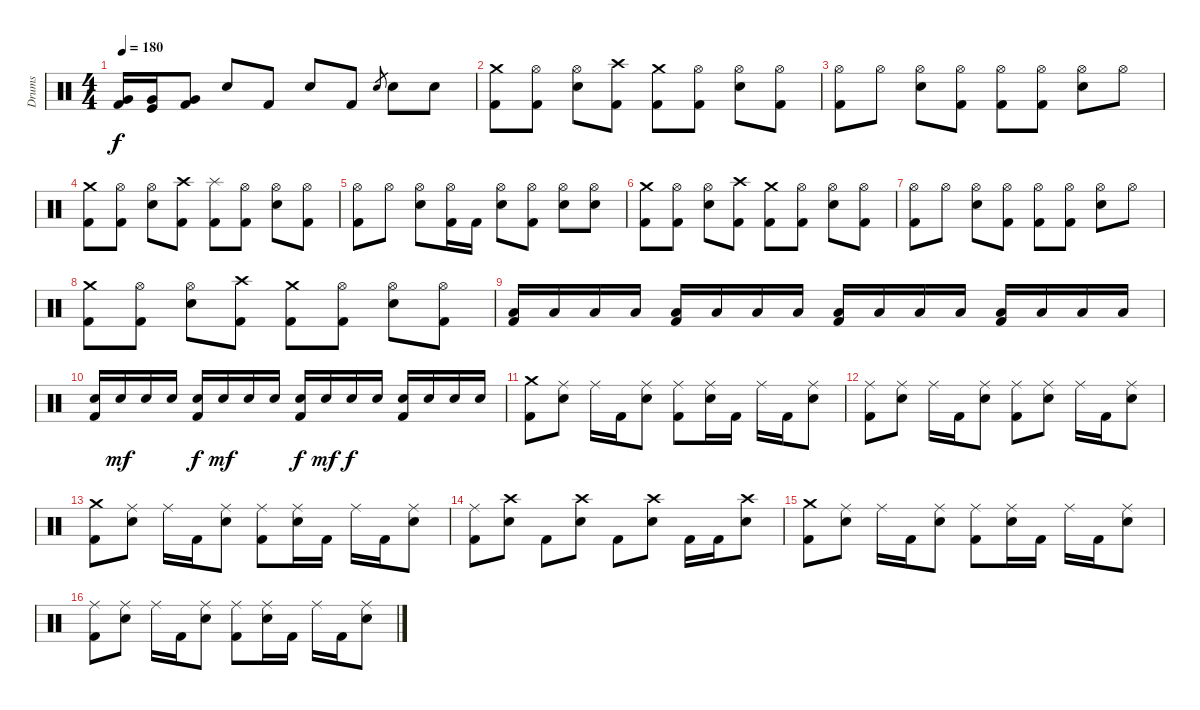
\track ("Drums" "Drums") {instrument percussion}
\staff {score}
\articulation defaults
\ts (4 4)
\tempo 180
\clef neutral
\ks c
("Very Low Tom (hit)" "Kick (hit) 2").16{dy f} ("Very Low Tom (hit)" "Kick (hit)").16 ("Very Low Tom (hit)" "Kick (hit) 2").8 "Electric Snare (hit)".8 "Kick (hit) 2".8 "Electric Snare (hit)".8 "Kick (hit) 2".8 "Electric Snare (hit)".8{gr} "Electric Snare (hit)".8 "Electric Snare (hit)".8 |
("Crash medium (hit)" "Kick (hit) 2").8 ("Hi-Hat (open)" "Kick (hit) 2").8 ("Hi-Hat (open)" "Electric Snare (hit)").8 ("Crash high (hit)" "Kick (hit) 2").8 ("Crash medium (hit)" "Kick (hit) 2").8 ("Hi-Hat (open)" "Kick (hit) 2").8 ("Hi-Hat (open)" "Electric Snare (hit)").8 ("Hi-Hat (open)" "Kick (hit) 2").8 |
("Hi-Hat (open)" "Kick (hit) 2").8 "Hi-Hat (open)".8 ("Hi-Hat (open)" "Electric Snare (hit)").8 ("Hi-Hat (open)" "Kick (hit) 2").8 ("Hi-Hat (open)" "Kick (hit) 2").8 ("Hi-Hat (open)" "Kick (hit) 2").8 ("Hi-Hat (open)" "Electric Snare (hit)").8 "Hi-Hat (open)".8 |
("Crash medium (hit)" "Kick (hit) 2").8 ("Hi-Hat (open)" "Kick (hit) 2").8 ("Hi-Hat (open)" "Electric Snare (hit)").8 ("Crash high (hit)" "Kick (hit) 2").8 ("Splash (hit)" "Kick (hit) 2").8 ("Hi-Hat (open)" "Kick (hit) 2").8 ("Hi-Hat (open)" "Electric Snare (hit)").8 ("Hi-Hat (open)" "Kick (hit) 2").8 |
("Hi-Hat (open)" "Kick (hit) 2").8 "Hi-Hat (open)".8 ("Hi-Hat (open)" "Electric Snare (hit)").8 ("Hi-Hat (open)" "Kick (hit) 2").16 "Kick (hit) 2".16 ("Hi-Hat (open)" "Electric Snare (hit)").8 ("Hi-Hat (open)" "Kick (hit) 2").8 ("Hi-Hat (open)" "Electric Snare (hit)").8 ("Hi-Hat (open)" "Electric Snare (hit)").8 |
("Crash medium (hit)" "Kick (hit) 2").8 ("Hi-Hat (open)" "Kick (hit) 2").8 ("Hi-Hat (open)" "Electric Snare (hit)").8 ("Crash high (hit)" "Kick (hit) 2").8 ("Crash medium (hit)" "Kick (hit) 2").8 ("Hi-Hat (open)" "Kick (hit) 2").8 ("Hi-Hat (open)" "Electric Snare (hit)").8 ("Hi-Hat (open)" "Kick (hit) 2").8 |
("Hi-Hat (open)" "Kick (hit) 2").8 "Hi-Hat (open)".8 ("Hi-Hat (open)" "Electric Snare (hit)").8 ("Hi-Hat (open)" "Kick (hit) 2").8 ("Hi-Hat (open)" "Kick (hit) 2").8 ("Hi-Hat (open)" "Kick (hit) 2").8 ("Hi-Hat (open)" "Electric Snare (hit)").8 "Hi-Hat (open)".8 |
("Crash medium (hit)" "Kick (hit) 2").8 ("Hi-Hat (open)" "Kick (hit) 2").8 ("Hi-Hat (open)" "Electric Snare (hit)").8 ("Crash high (hit)" "Kick (hit) 2").8 ("Crash medium (hit)" "Kick (hit) 2").8 ("Hi-Hat (open)" "Kick (hit) 2").8 ("Hi-Hat (open)" "Electric Snare (hit)").8 ("Hi-Hat (open)" "Kick (hit) 2").8 |
("Low Tom (hit)" "Kick (hit) 2").16 "Low Tom (hit)".16 "Low Tom (hit)".16 "Low Tom (hit)".16 ("Low Tom (hit)" "Kick (hit) 2").16 "Low Tom (hit)".16 "Low Tom (hit)".16 "Low Tom (hit)".16 ("Low Tom (hit)" "Kick (hit) 2").16 "Low Tom (hit)".16 "Low Tom (hit)".16 "Low Tom (hit)".16 ("Low Tom (hit)" "Kick (hit) 2").16 "Low Tom (hit)".16 "Low Tom (hit)".16 "Low Tom (hit)".16 |
("Electric Snare (hit)" "Kick (hit) 2").16 "Electric Snare (hit)".16{dy mf} "Electric Snare (hit)".16 "Electric Snare (hit)".16 ("Electric Snare (hit)" "Kick (hit) 2").16{dy f} "Electric Snare (hit)".16{dy mf} "Electric Snare (hit)".16 "Electric Snare (hit)".16 ("Electric Snare (hit)" "Kick (hit) 2").16{dy f} "Electric Snare (hit)".16{dy mf} "Electric Snare (hit)".16{dy f} "Electric Snare (hit)".16 ("Electric Snare (hit)" "Kick (hit) 2").16 "Electric Snare (hit)".16 "Electric Snare (hit)".16 "Electric Snare (hit)".16 |
("Crash medium (hit)" "Kick (hit) 2").8 ("Ride (middle)" "Electric Snare (hit)").8 "Ride (middle)".16 "Kick (hit) 2".16 ("Ride (middle)" "Electric Snare (hit)").8 ("Ride (middle)" "Kick (hit) 2").8 ("Ride (middle)" "Electric Snare (hit)").16 "Kick (hit) 2".16 "Ride (middle)".16 "Kick (hit) 2".16 ("Ride (middle)" "Electric Snare (hit)").8 |
("Ride (middle)" "Kick (hit) 2").8 ("Ride (middle)" "Electric Snare (hit)").8 "Ride (middle)".16 "Kick (hit) 2".16 ("Ride (middle)" "Electric Snare (hit)").8 ("Ride (middle)" "Kick (hit) 2").8 ("Ride (middle)" "Electric Snare (hit)").8 "Ride (middle)".16 "Kick (hit) 2".16 ("Ride (middle)" "Electric Snare (hit)").8 |
("Crash medium (hit)" "Kick (hit) 2").8 ("Ride (middle)" "Electric Snare (hit)").8 "Ride (middle)".16 "Kick (hit) 2".16 ("Ride (middle)" "Electric Snare (hit)").8 ("Ride (middle)" "Kick (hit) 2").8 ("Ride (middle)" "Electric Snare (hit)").16 "Kick (hit) 2".16 "Ride (middle)".16 "Kick (hit) 2".16 ("Ride (middle)" "Electric Snare (hit)").8 |
("Ride (middle)" "Kick (hit) 2").8 ("Crash high (hit)" "Electric Snare (hit)").8 "Kick (hit) 2".8 ("Crash high (hit)" "Electric Snare (hit)").8 "Kick (hit) 2".8 ("Crash high (hit)" "Electric Snare (hit)").8 "Kick (hit) 2".16 "Kick (hit) 2".16 ("Crash high (hit)" "Electric Snare (hit)").8 |
("Crash medium (hit)" "Kick (hit) 2").8 ("Ride (middle)" "Electric Snare (hit)").8 "Ride (middle)".16 "Kick (hit) 2".16 ("Ride (middle)" "Electric Snare (hit)").8 ("Ride (middle)" "Kick (hit) 2").8 ("Ride (middle)" "Electric Snare (hit)").16 "Kick (hit) 2".16 "Ride (middle)".16 "Kick (hit) 2".16 ("Ride (middle)" "Electric Snare (hit)").8 |
("Ride (middle)" "Kick (hit) 2").8 ("Ride (middle)" "Electric Snare (hit)").8 "Ride (middle)".16 "Kick (hit) 2".16 ("Ride (middle)" "Electric Snare (hit)").8 ("Ride (middle)" "Kick (hit) 2").8 ("Ride (middle)" "Electric Snare (hit)").16 "Kick (hit) 2".16 "Ride (middle)".16 "Kick (hit) 2".16 ("Ride (middle)" "Electric Snare (hit)").8
